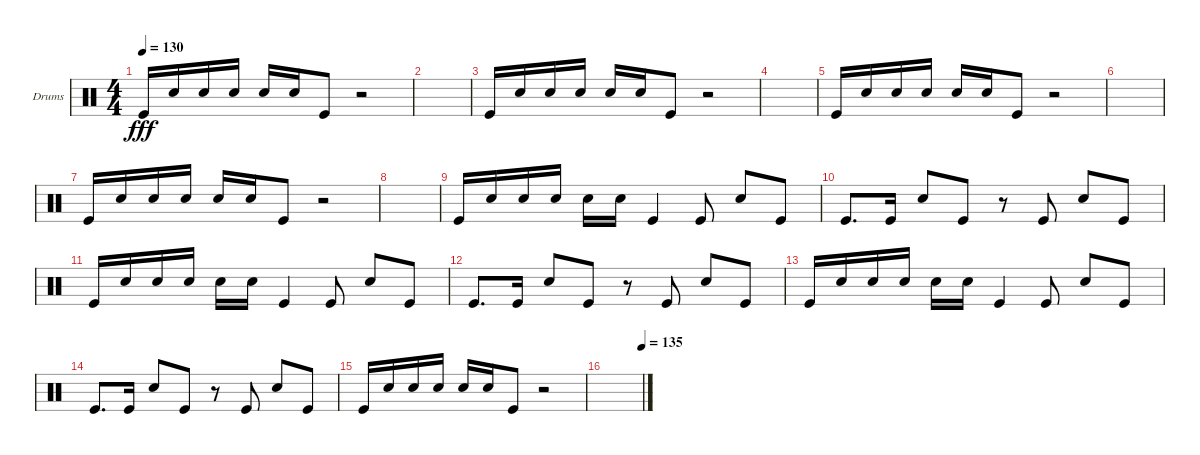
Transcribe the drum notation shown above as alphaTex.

\defaultSystemsLayout 4
\bracketExtendMode groupsimilarinstruments
\firstSystemTrackNameOrientation horizontal
\otherSystemsTrackNameOrientation horizontal
\track ("Helders" "Drums") {instrument percussion}
\staff {score}
\articulation defaults
\ts (4 4)
\tempo 130
\clef neutral
\ks c "Kick (hit)".16{dy fff} "Snare (hit) 2".16 "Snare (hit) 2".16 "Snare (hit) 2".16 "Snare (hit) 2".16 "Snare (hit) 2".16 "Kick (hit)".8
r.2 |
|
"Kick (hit)".16 "Snare (hit) 2".16 "Snare (hit) 2".16 "Snare (hit) 2".16 "Snare (hit) 2".16 "Snare (hit) 2".16 "Kick (hit)".8 r.2 |
|
"Kick (hit)".16 "Snare (hit) 2".16 "Snare (hit) 2".16 "Snare (hit) 2".16 "Snare (hit) 2".16 "Snare (hit) 2".16 "Kick (hit)".8 r.2 |
|
"Kick (hit)".16 "Snare (hit) 2".16 "Snare (hit) 2".16 "Snare (hit) 2".16 "Snare (hit) 2".16 "Snare (hit) 2".16 "Kick (hit)".8 r.2 |
|
"Kick (hit)".16 "Snare (hit) 2".16 "Snare (hit) 2".16 "Snare (hit) 2".16 "Snare (hit) 2".16 "Snare (hit) 2".16 "Kick (hit)".4 "Kick (hit)".8 "Snare (hit) 2".8 "Kick (hit)".8 |
"Kick (hit)".8{d} "Kick (hit)".16 "Snare (hit) 2".8 "Kick (hit)".8 r.8 "Kick (hit)".8 "Snare (hit) 2".8 "Kick (hit)".8 |
"Kick (hit)".16 "Snare (hit) 2".16 "Snare (hit) 2".16 "Snare (hit) 2".16 "Snare (hit) 2".16 "Snare (hit) 2".16 "Kick (hit)".4 "Kick (hit)".8 "Snare (hit) 2".8 "Kick (hit)".8 |
"Kick (hit)".8{d} "Kick (hit)".16 "Snare (hit) 2".8 "Kick (hit)".8 r.8 "Kick (hit)".8 "Snare (hit) 2".8 "Kick (hit)".8 |
"Kick (hit)".16 "Snare (hit) 2".16 "Snare (hit) 2".16 "Snare (hit) 2".16 "Snare (hit) 2".16 "Snare (hit) 2".16 "Kick (hit)".4 "Kick (hit)".8 "Snare (hit) 2".8 "Kick (hit)".8 |
"Kick (hit)".8{d} "Kick (hit)".16 "Snare (hit) 2".8 "Kick (hit)".8 r.8 "Kick (hit)".8 "Snare (hit) 2".8 "Kick (hit)".8 |
"Kick (hit)".16 "Snare (hit) 2".16 "Snare (hit) 2".16 "Snare (hit) 2".16 "Snare (hit) 2".16 "Snare (hit) 2".16 "Kick (hit)".8 r.2 |
\tempo (135 1)
